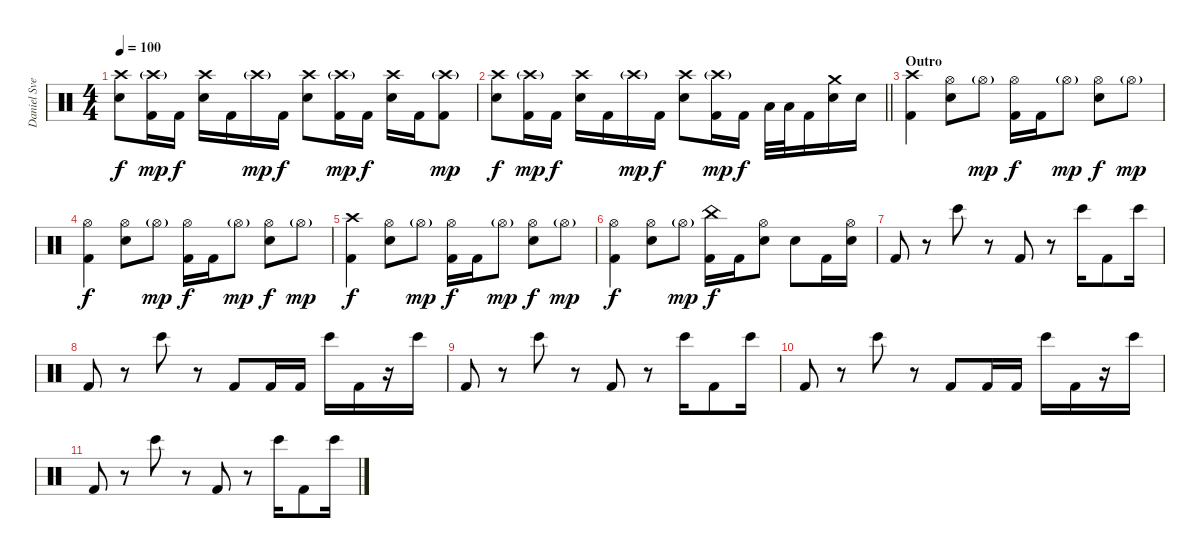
\track ("Daniel Svensson" "Daniel Sve") {instrument percussion}
\staff {score}
\articulation defaults
\ts (4 4)
\tempo 100
\clef neutral
\ks c
("Crash high (hit)" "Snare (hit) 2").8{dy f} ("Crash high (hit)"{g} "Kick (hit) 2").16{dy mp} "Kick (hit) 2".16{dy f} ("Crash high (hit)" "Snare (hit) 2").16 "Kick (hit) 2".16 "Crash high (hit)"{g}.16{dy mp} "Kick (hit) 2".16{dy f} ("Crash high (hit)" "Snare (hit) 2").8 ("Crash high (hit)"{g} "Kick (hit) 2").16{dy mp} "Kick (hit) 2".16{dy f} ("Crash high (hit)" "Snare (hit) 2").16 "Kick (hit) 2".16 ("Crash high (hit)"{g} "Kick (hit) 2").8{dy mp} |
\barLineRight lightlight
("Crash high (hit)" "Snare (hit) 2").8{dy f} ("Crash high (hit)"{g} "Kick (hit) 2").16{dy mp} "Kick (hit) 2".16{dy f} ("Crash high (hit)" "Snare (hit) 2").16 "Kick (hit) 2".16 "Crash high (hit)"{g}.16{dy mp} "Kick (hit) 2".16{dy f} ("Crash high (hit)" "Snare (hit) 2").8 ("Crash high (hit)"{g} "Kick (hit) 2").16{dy mp} "Kick (hit) 2".16{dy f} "Low Tom (hit)".32 "Low Tom (hit)".32 "Kick (hit) 2".16 ("Crash medium (hit)" "Snare (hit) 2").16 "Snare (hit) 2".16 |
\section ("" "Outro")
("Crash high (hit)" "Kick (hit) 2").4 ("Hi-Hat (open)" "Snare (hit) 2").8 "Hi-Hat (open)"{g}.8{dy mp} ("Hi-Hat (open)" "Kick (hit) 2").16{dy f} "Kick (hit) 2".16 "Hi-Hat (open)"{g}.8{dy mp} ("Hi-Hat (open)" "Snare (hit) 2").8{dy f} "Hi-Hat (open)"{g}.8{dy mp} |
("Hi-Hat (open)" "Kick (hit) 2").4{dy f} ("Hi-Hat (open)" "Snare (hit) 2").8 "Hi-Hat (open)"{g}.8{dy mp} ("Hi-Hat (open)" "Kick (hit) 2").16{dy f} "Kick (hit) 2".16 "Hi-Hat (open)"{g}.8{dy mp} ("Hi-Hat (open)" "Snare (hit) 2").8{dy f} "Hi-Hat (open)"{g}.8{dy mp} |
("Crash high (hit)" "Kick (hit) 2").4{dy f} ("Hi-Hat (open)" "Snare (hit) 2").8 "Hi-Hat (open)"{g}.8{dy mp} ("Hi-Hat (open)" "Kick (hit) 2").16{dy f} "Kick (hit) 2".16 "Hi-Hat (open)"{g}.8{dy mp} ("Hi-Hat (open)" "Snare (hit) 2").8{dy f} "Hi-Hat (open)"{g}.8{dy mp} |
("Hi-Hat (open)" "Kick (hit) 2").4{dy f} ("Hi-Hat (open)" "Snare (hit) 2").8 "Hi-Hat (open)"{g}.8{dy mp} ("China (hit)" "Kick (hit) 2").16{dy f} "Kick (hit) 2".16 ("Hi-Hat (open)" "Snare (hit) 2").8 "Snare (hit) 2".8 "Kick (hit) 2".16 ("Hi-Hat (open)" "Snare (hit) 2").16 |
"Kick (hit) 2".8{volume 8} r.8{volume 0} "Bongo High (hit)".8 r.8 "Kick (hit) 2".8 r.8 "Bongo High (hit)".16 "Kick (hit) 2".8 "Bongo High (hit)".16 |
"Kick (hit) 2".8 r.8 "Bongo High (hit)".8 r.8 "Kick (hit) 2".8 "Kick (hit) 2".16 "Kick (hit) 2".16 "Bongo High (hit)".16 "Kick (hit) 2".16 r.16 "Bongo High (hit)".16 |
"Kick (hit) 2".8 r.8 "Bongo High (hit)".8 r.8 "Kick (hit) 2".8 r.8 "Bongo High (hit)".16 "Kick (hit) 2".8 "Bongo High (hit)".16 |
"Kick (hit) 2".8 r.8 "Bongo High (hit)".8 r.8 "Kick (hit) 2".8 "Kick (hit) 2".16 "Kick (hit) 2".16 "Bongo High (hit)".16 "Kick (hit) 2".16 r.16 "Bongo High (hit)".16 |
"Kick (hit) 2".8 r.8 "Bongo High (hit)".8 r.8 "Kick (hit) 2".8 r.8 "Bongo High (hit)".16 "Kick (hit) 2".8 "Bongo High (hit)".16
